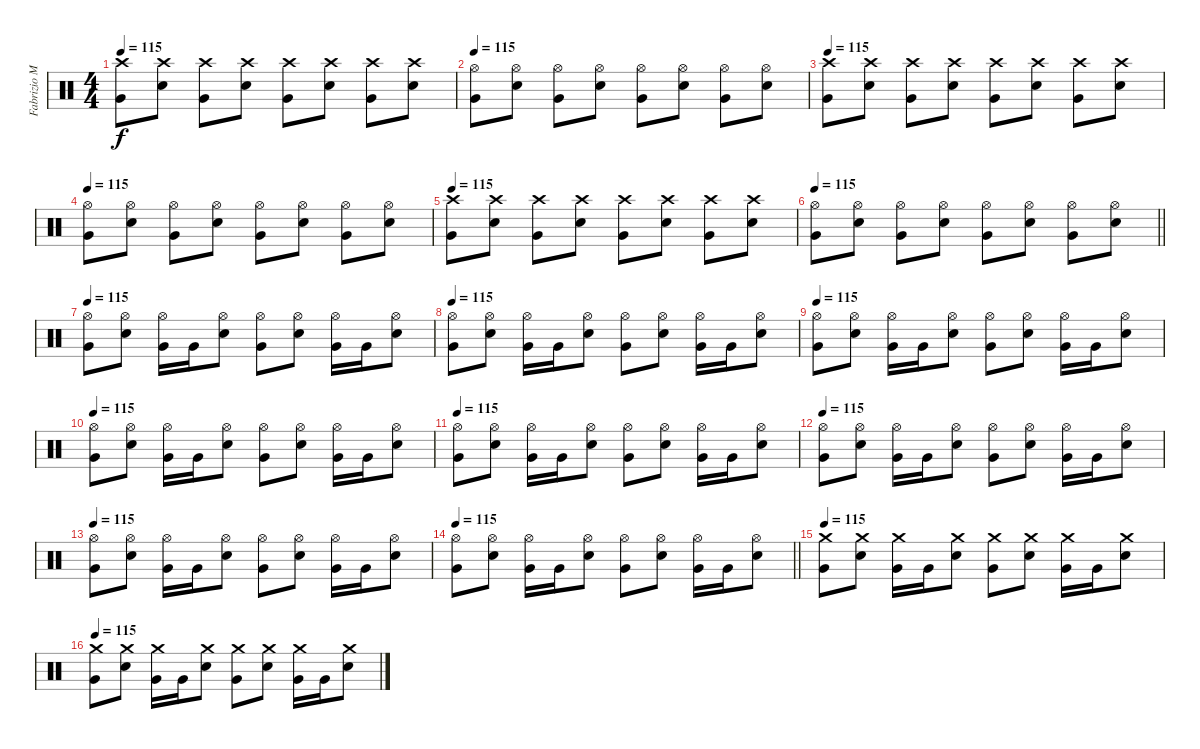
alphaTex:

\track ("Fabrizio Moretti" "Fabrizio M") {instrument percussion}
\staff {score}
\articulation defaults
\ts (4 4)
\tempo 115
\clef neutral
\ks c
("Very Low Tom (hit)" "Crash high (hit)").8{dy f} ("Electric Snare (hit)" "Crash high (hit)").8 ("Very Low Tom (hit)" "Crash high (hit)").8 ("Electric Snare (hit)" "Crash high (hit)").8 ("Very Low Tom (hit)" "Crash high (hit)").8 ("Electric Snare (hit)" "Crash high (hit)").8 ("Very Low Tom (hit)" "Crash high (hit)").8 ("Electric Snare (hit)" "Crash high (hit)").8 |
\tempo 115
("Very Low Tom (hit)" "Hi-Hat (open)").8 ("Electric Snare (hit)" "Hi-Hat (open)").8 ("Very Low Tom (hit)" "Hi-Hat (open)").8 ("Electric Snare (hit)" "Hi-Hat (open)").8 ("Very Low Tom (hit)" "Hi-Hat (open)").8 ("Electric Snare (hit)" "Hi-Hat (open)").8 ("Very Low Tom (hit)" "Hi-Hat (open)").8 ("Electric Snare (hit)" "Hi-Hat (open)").8 |
\tempo 115
("Very Low Tom (hit)" "Crash high (hit)").8 ("Electric Snare (hit)" "Crash high (hit)").8 ("Very Low Tom (hit)" "Crash high (hit)").8 ("Electric Snare (hit)" "Crash high (hit)").8 ("Very Low Tom (hit)" "Crash high (hit)").8 ("Electric Snare (hit)" "Crash high (hit)").8 ("Very Low Tom (hit)" "Crash high (hit)").8 ("Electric Snare (hit)" "Crash high (hit)").8 |
\tempo 115
("Very Low Tom (hit)" "Hi-Hat (open)").8 ("Electric Snare (hit)" "Hi-Hat (open)").8 ("Very Low Tom (hit)" "Hi-Hat (open)").8 ("Electric Snare (hit)" "Hi-Hat (open)").8 ("Very Low Tom (hit)" "Hi-Hat (open)").8 ("Electric Snare (hit)" "Hi-Hat (open)").8 ("Very Low Tom (hit)" "Hi-Hat (open)").8 ("Electric Snare (hit)" "Hi-Hat (open)").8 |
\tempo 115
("Very Low Tom (hit)" "Crash high (hit)").8 ("Electric Snare (hit)" "Crash high (hit)").8 ("Very Low Tom (hit)" "Crash high (hit)").8 ("Electric Snare (hit)" "Crash high (hit)").8 ("Very Low Tom (hit)" "Crash high (hit)").8 ("Electric Snare (hit)" "Crash high (hit)").8 ("Very Low Tom (hit)" "Crash high (hit)").8 ("Electric Snare (hit)" "Crash high (hit)").8 |
\tempo 115
\barLineRight lightlight
("Very Low Tom (hit)" "Hi-Hat (open)").8 ("Electric Snare (hit)" "Hi-Hat (open)").8 ("Very Low Tom (hit)" "Hi-Hat (open)").8 ("Electric Snare (hit)" "Hi-Hat (open)").8 ("Very Low Tom (hit)" "Hi-Hat (open)").8 ("Electric Snare (hit)" "Hi-Hat (open)").8 ("Very Low Tom (hit)" "Hi-Hat (open)").8 ("Electric Snare (hit)" "Hi-Hat (open)").8 |
\tempo 115
("Very Low Tom (hit)" "Hi-Hat (open)").8 ("Electric Snare (hit)" "Hi-Hat (open)").8 ("Very Low Tom (hit)" "Hi-Hat (open)").16 "Very Low Tom (hit)".16 ("Electric Snare (hit)" "Hi-Hat (open)").8 ("Very Low Tom (hit)" "Hi-Hat (open)").8 ("Electric Snare (hit)" "Hi-Hat (open)").8 ("Very Low Tom (hit)" "Hi-Hat (open)").16 "Very Low Tom (hit)".16 ("Electric Snare (hit)" "Hi-Hat (open)").8 |
\tempo 115
("Very Low Tom (hit)" "Hi-Hat (open)").8 ("Electric Snare (hit)" "Hi-Hat (open)").8 ("Very Low Tom (hit)" "Hi-Hat (open)").16 "Very Low Tom (hit)".16 ("Electric Snare (hit)" "Hi-Hat (open)").8 ("Very Low Tom (hit)" "Hi-Hat (open)").8 ("Electric Snare (hit)" "Hi-Hat (open)").8 ("Very Low Tom (hit)" "Hi-Hat (open)").16 "Very Low Tom (hit)".16 ("Electric Snare (hit)" "Hi-Hat (open)").8 |
\tempo 115
("Very Low Tom (hit)" "Hi-Hat (open)").8 ("Electric Snare (hit)" "Hi-Hat (open)").8 ("Very Low Tom (hit)" "Hi-Hat (open)").16 "Very Low Tom (hit)".16 ("Electric Snare (hit)" "Hi-Hat (open)").8 ("Very Low Tom (hit)" "Hi-Hat (open)").8 ("Electric Snare (hit)" "Hi-Hat (open)").8 ("Very Low Tom (hit)" "Hi-Hat (open)").16 "Very Low Tom (hit)".16 ("Electric Snare (hit)" "Hi-Hat (open)").8 |
\tempo 115
("Very Low Tom (hit)" "Hi-Hat (open)").8 ("Electric Snare (hit)" "Hi-Hat (open)").8 ("Very Low Tom (hit)" "Hi-Hat (open)").16 "Very Low Tom (hit)".16 ("Electric Snare (hit)" "Hi-Hat (open)").8 ("Very Low Tom (hit)" "Hi-Hat (open)").8 ("Electric Snare (hit)" "Hi-Hat (open)").8 ("Very Low Tom (hit)" "Hi-Hat (open)").16 "Very Low Tom (hit)".16 ("Electric Snare (hit)" "Hi-Hat (open)").8 |
\tempo 115
("Very Low Tom (hit)" "Hi-Hat (open)").8 ("Electric Snare (hit)" "Hi-Hat (open)").8 ("Very Low Tom (hit)" "Hi-Hat (open)").16 "Very Low Tom (hit)".16 ("Electric Snare (hit)" "Hi-Hat (open)").8 ("Very Low Tom (hit)" "Hi-Hat (open)").8 ("Electric Snare (hit)" "Hi-Hat (open)").8 ("Very Low Tom (hit)" "Hi-Hat (open)").16 "Very Low Tom (hit)".16 ("Electric Snare (hit)" "Hi-Hat (open)").8 |
\tempo 115
("Very Low Tom (hit)" "Hi-Hat (open)").8 ("Electric Snare (hit)" "Hi-Hat (open)").8 ("Very Low Tom (hit)" "Hi-Hat (open)").16 "Very Low Tom (hit)".16 ("Electric Snare (hit)" "Hi-Hat (open)").8 ("Very Low Tom (hit)" "Hi-Hat (open)").8 ("Electric Snare (hit)" "Hi-Hat (open)").8 ("Very Low Tom (hit)" "Hi-Hat (open)").16 "Very Low Tom (hit)".16 ("Electric Snare (hit)" "Hi-Hat (open)").8 |
\tempo 115
("Very Low Tom (hit)" "Hi-Hat (open)").8 ("Electric Snare (hit)" "Hi-Hat (open)").8 ("Very Low Tom (hit)" "Hi-Hat (open)").16 "Very Low Tom (hit)".16 ("Electric Snare (hit)" "Hi-Hat (open)").8 ("Very Low Tom (hit)" "Hi-Hat (open)").8 ("Electric Snare (hit)" "Hi-Hat (open)").8 ("Very Low Tom (hit)" "Hi-Hat (open)").16 "Very Low Tom (hit)".16 ("Electric Snare (hit)" "Hi-Hat (open)").8 |
\tempo 115
\barLineRight lightlight
("Very Low Tom (hit)" "Hi-Hat (open)").8 ("Electric Snare (hit)" "Hi-Hat (open)").8 ("Very Low Tom (hit)" "Hi-Hat (open)").16 "Very Low Tom (hit)".16 ("Electric Snare (hit)" "Hi-Hat (open)").8 ("Very Low Tom (hit)" "Hi-Hat (open)").8 ("Electric Snare (hit)" "Hi-Hat (open)").8 ("Very Low Tom (hit)" "Hi-Hat (open)").16 "Very Low Tom (hit)".16 ("Electric Snare (hit)" "Hi-Hat (open)").8 |
\tempo 115
("Very Low Tom (hit)" "Crash medium (hit)").8 ("Electric Snare (hit)" "Crash medium (hit)").8 ("Very Low Tom (hit)" "Crash medium (hit)").16 "Very Low Tom (hit)".16 ("Electric Snare (hit)" "Crash medium (hit)").8 ("Very Low Tom (hit)" "Crash medium (hit)").8 ("Electric Snare (hit)" "Crash medium (hit)").8 ("Very Low Tom (hit)" "Crash medium (hit)").16 "Very Low Tom (hit)".16 ("Electric Snare (hit)" "Crash medium (hit)").8 |
\tempo 115
("Very Low Tom (hit)" "Crash medium (hit)").8 ("Electric Snare (hit)" "Crash medium (hit)").8 ("Very Low Tom (hit)" "Crash medium (hit)").16 "Very Low Tom (hit)".16 ("Electric Snare (hit)" "Crash medium (hit)").8 ("Very Low Tom (hit)" "Crash medium (hit)").8 ("Electric Snare (hit)" "Crash medium (hit)").8 ("Very Low Tom (hit)" "Crash medium (hit)").16 "Very Low Tom (hit)".16 ("Electric Snare (hit)" "Crash medium (hit)").8
